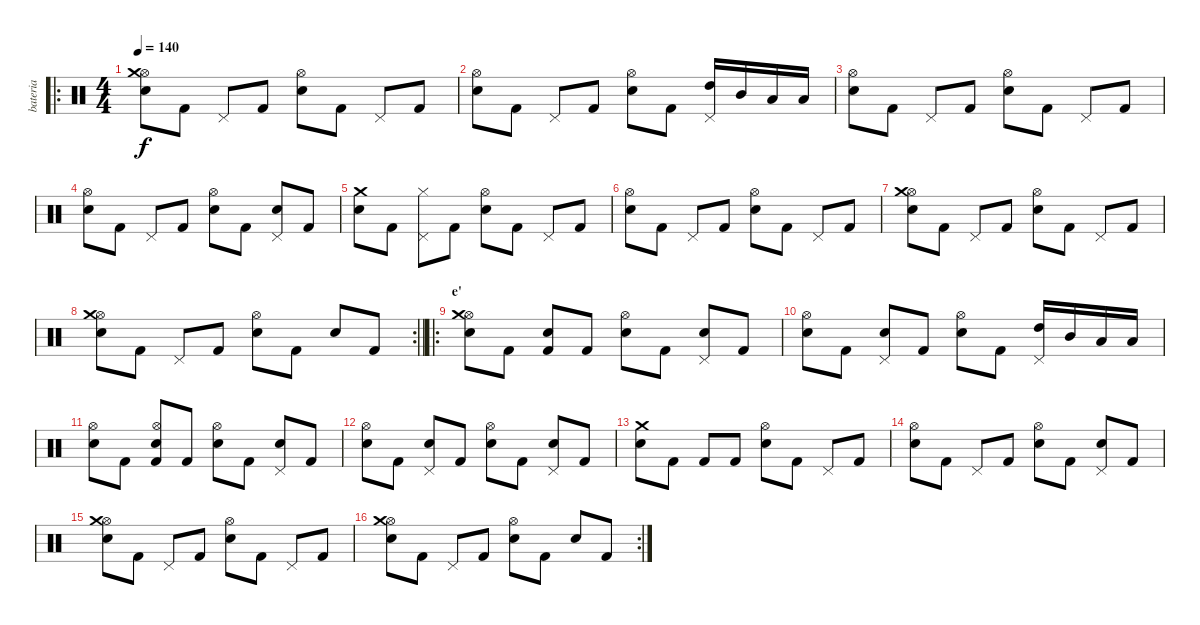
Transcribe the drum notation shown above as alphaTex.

\track ("bateria" "bateria") {mute instrument percussion}
\staff {score}
\articulation defaults
\ro
\ts (4 4)
\tempo 140
\clef neutral
\ks c
("Electric Snare (hit)" "Hi-Hat (open)" "Crash medium (hit)").8{dy f} "Kick (hit) 2".8 "Pedal Hi-Hat (hit)".8 "Kick (hit) 2".8 ("Electric Snare (hit)" "Hi-Hat (open)").8 "Kick (hit) 2".8 "Pedal Hi-Hat (hit)".8 "Kick (hit) 2".8 |
("Electric Snare (hit)" "Hi-Hat (open)").8 "Kick (hit) 2".8 "Pedal Hi-Hat (hit)".8 "Kick (hit) 2".8 ("Electric Snare (hit)" "Hi-Hat (open)").8 "Kick (hit) 2".8 ("High Tom (hit)" "Pedal Hi-Hat (hit)").16 "Mid Tom (hit)".16 "Low Tom (hit)".16 "Low Tom (hit)".16 |
("Electric Snare (hit)" "Hi-Hat (open)").8 "Kick (hit) 2".8 "Pedal Hi-Hat (hit)".8 "Kick (hit) 2".8 ("Electric Snare (hit)" "Hi-Hat (open)").8 "Kick (hit) 2".8 "Pedal Hi-Hat (hit)".8 "Kick (hit) 2".8 |
("Electric Snare (hit)" "Hi-Hat (open)").8 "Kick (hit) 2".8 "Pedal Hi-Hat (hit)".8 "Kick (hit) 2".8 ("Electric Snare (hit)" "Hi-Hat (open)").8 "Kick (hit) 2".8 ("Electric Snare (hit)" "Pedal Hi-Hat (hit)").8 "Kick (hit) 2".8 |
("Electric Snare (hit)" "Crash medium (hit)").8 "Kick (hit) 2".8 ("Hi-Hat (closed)" "Pedal Hi-Hat (hit)").8 "Kick (hit) 2".8 ("Electric Snare (hit)" "Hi-Hat (open)").8 "Kick (hit) 2".8 "Pedal Hi-Hat (hit)".8 "Kick (hit) 2".8 |
("Electric Snare (hit)" "Hi-Hat (open)").8 "Kick (hit) 2".8 "Pedal Hi-Hat (hit)".8 "Kick (hit) 2".8 ("Electric Snare (hit)" "Hi-Hat (open)").8 "Kick (hit) 2".8 "Pedal Hi-Hat (hit)".8 "Kick (hit) 2".8 |
("Electric Snare (hit)" "Hi-Hat (open)" "Crash medium (hit)").8 "Kick (hit) 2".8 "Pedal Hi-Hat (hit)".8 "Kick (hit) 2".8 ("Electric Snare (hit)" "Hi-Hat (open)").8 "Kick (hit) 2".8 "Pedal Hi-Hat (hit)".8 "Kick (hit) 2".8 |
\rc 2
\barLineRight lightlight
("Electric Snare (hit)" "Hi-Hat (open)" "Crash medium (hit)").8 "Kick (hit) 2".8 "Pedal Hi-Hat (hit)".8 "Kick (hit) 2".8 ("Electric Snare (hit)" "Hi-Hat (open)").8 "Kick (hit) 2".8 "Electric Snare (hit)".8 "Kick (hit) 2".8 |
\ro
\section ("" "e'")
("Electric Snare (hit)" "Hi-Hat (open)" "Crash medium (hit)").8 "Kick (hit) 2".8 ("Kick (hit) 2" "Electric Snare (hit)").8 "Kick (hit) 2".8 ("Electric Snare (hit)" "Hi-Hat (open)").8 "Kick (hit) 2".8 ("Pedal Hi-Hat (hit)" "Electric Snare (hit)").8 "Kick (hit) 2".8 |
("Electric Snare (hit)" "Hi-Hat (open)").8 "Kick (hit) 2".8 ("Pedal Hi-Hat (hit)" "Electric Snare (hit)").8 "Kick (hit) 2".8 ("Electric Snare (hit)" "Hi-Hat (open)").8 "Kick (hit) 2".8 ("High Tom (hit)" "Pedal Hi-Hat (hit)").16 "Mid Tom (hit)".16 "Low Tom (hit)".16 "Low Tom (hit)".16 |
("Electric Snare (hit)" "Hi-Hat (open)").8 "Kick (hit) 2".8 ("Hi-Hat (open)" "Electric Snare (hit)" "Kick (hit) 2").8 "Kick (hit) 2".8 ("Electric Snare (hit)" "Hi-Hat (open)").8 "Kick (hit) 2".8 ("Pedal Hi-Hat (hit)" "Electric Snare (hit)").8 "Kick (hit) 2".8 |
("Electric Snare (hit)" "Hi-Hat (open)").8 "Kick (hit) 2".8 ("Pedal Hi-Hat (hit)" "Electric Snare (hit)").8 "Kick (hit) 2".8 ("Electric Snare (hit)" "Hi-Hat (open)").8 "Kick (hit) 2".8 ("Electric Snare (hit)" "Pedal Hi-Hat (hit)").8 "Kick (hit) 2".8 |
("Electric Snare (hit)" "Crash medium (hit)").8 "Kick (hit) 2".8 "Kick (hit) 2".8 "Kick (hit) 2".8 ("Electric Snare (hit)" "Hi-Hat (open)").8 "Kick (hit) 2".8 "Pedal Hi-Hat (hit)".8 "Kick (hit) 2".8 |
("Electric Snare (hit)" "Hi-Hat (open)").8 "Kick (hit) 2".8 "Pedal Hi-Hat (hit)".8 "Kick (hit) 2".8 ("Electric Snare (hit)" "Hi-Hat (open)").8 "Kick (hit) 2".8 ("Pedal Hi-Hat (hit)" "Electric Snare (hit)").8 "Kick (hit) 2".8 |
("Electric Snare (hit)" "Hi-Hat (open)" "Crash medium (hit)").8 "Kick (hit) 2".8 "Pedal Hi-Hat (hit)".8 "Kick (hit) 2".8 ("Electric Snare (hit)" "Hi-Hat (open)").8 "Kick (hit) 2".8 "Pedal Hi-Hat (hit)".8 "Kick (hit) 2".8 |
\rc 2
("Electric Snare (hit)" "Hi-Hat (open)" "Crash medium (hit)").8 "Kick (hit) 2".8 "Pedal Hi-Hat (hit)".8 "Kick (hit) 2".8 ("Electric Snare (hit)" "Hi-Hat (open)").8 "Kick (hit) 2".8 "Electric Snare (hit)".8 "Kick (hit) 2".8
